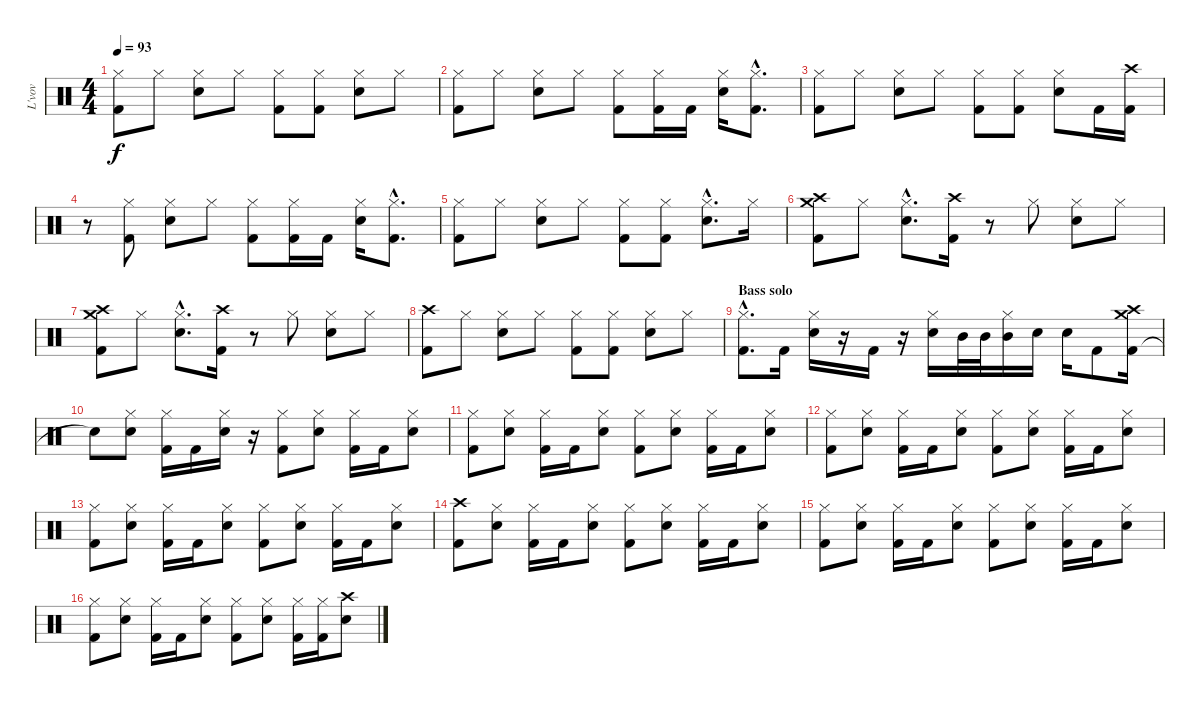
\track ("L'vov" "L'vov") {instrument percussion}
\staff {score}
\articulation defaults
\ts (4 4)
\tempo 93
\clef neutral
\ks c
("Kick (hit) 2" "Hi-Hat (closed)").8{dy f} "Hi-Hat (closed)".8 ("Snare (hit) 2" "Hi-Hat (closed)").8 "Hi-Hat (closed)".8 ("Kick (hit) 2" "Hi-Hat (closed)").8 ("Kick (hit) 2" "Hi-Hat (closed)").8 ("Snare (hit) 2" "Hi-Hat (closed)").8 "Hi-Hat (closed)".8 |
("Kick (hit) 2" "Hi-Hat (closed)").8 "Hi-Hat (closed)".8 ("Snare (hit) 2" "Hi-Hat (closed)").8 "Hi-Hat (closed)".8 ("Kick (hit) 2" "Hi-Hat (closed)").8 ("Kick (hit) 2" "Hi-Hat (closed)").16 "Kick (hit) 2".16 ("Snare (hit) 2" "Hi-Hat (closed)").16 ("Kick (hit) 2"{hac} "Hi-Hat (closed)"{hac}).8{d} |
("Kick (hit) 2" "Hi-Hat (closed)").8 "Hi-Hat (closed)".8 ("Snare (hit) 2" "Hi-Hat (closed)").8 "Hi-Hat (closed)".8 ("Kick (hit) 2" "Hi-Hat (closed)").8 ("Kick (hit) 2" "Hi-Hat (closed)").8 ("Snare (hit) 2" "Hi-Hat (closed)").8 "Kick (hit) 2".16 ("Kick (hit) 2" "Crash high (hit)").16 |
r.8 ("Kick (hit) 2" "Hi-Hat (closed)").8 ("Snare (hit) 2" "Hi-Hat (closed)").8 "Hi-Hat (closed)".8 ("Kick (hit) 2" "Hi-Hat (closed)").8 ("Kick (hit) 2" "Hi-Hat (closed)").16 "Kick (hit) 2".16 ("Snare (hit) 2" "Hi-Hat (closed)").16 ("Kick (hit) 2"{hac} "Hi-Hat (closed)"{hac}).8{d} |
("Kick (hit) 2" "Hi-Hat (closed)").8 "Hi-Hat (closed)".8 ("Snare (hit) 2" "Hi-Hat (closed)").8 "Hi-Hat (closed)".8 ("Kick (hit) 2" "Hi-Hat (closed)").8 ("Kick (hit) 2" "Hi-Hat (closed)").8 ("Snare (hit) 2"{hac} "Hi-Hat (closed)"{hac}).8{d} "Hi-Hat (closed)".16 |
("Kick (hit) 2" "Crash high (hit)" "Crash medium (hit)").8 "Hi-Hat (closed)".8 ("Snare (hit) 2"{hac} "Hi-Hat (closed)"{hac}).8{d} ("Kick (hit) 2" "Crash high (hit)").16 r.8 "Hi-Hat (closed)".8 ("Snare (hit) 2" "Hi-Hat (closed)").8 "Hi-Hat (closed)".8 |
("Kick (hit) 2" "Crash high (hit)" "Crash medium (hit)").8 "Hi-Hat (closed)".8 ("Snare (hit) 2"{hac} "Hi-Hat (closed)"{hac}).8{d} ("Kick (hit) 2" "Crash high (hit)").16 r.8 "Hi-Hat (closed)".8 ("Snare (hit) 2" "Hi-Hat (closed)").8 "Hi-Hat (closed)".8 |
("Kick (hit) 2" "Crash high (hit)").8 "Hi-Hat (closed)".8 ("Snare (hit) 2" "Hi-Hat (closed)").8 "Hi-Hat (closed)".8 ("Kick (hit) 2" "Hi-Hat (closed)").8 ("Kick (hit) 2" "Hi-Hat (closed)").8 ("Snare (hit) 2" "Hi-Hat (closed)").8 "Hi-Hat (closed)".8 |
\section ("" "Bass solo")
("Kick (hit) 2"{hac} "Hi-Hat (closed)"{hac}).8{d} "Kick (hit) 2".16 ("Snare (hit) 2" "Hi-Hat (closed)").16 r.16 "Kick (hit) 2".16 r.16 ("Snare (hit) 2" "Hi-Hat (closed)").16 "Mid Tom (hit)".32 "Mid Tom (hit)".32 ("Mid Tom (hit)" "Hi-Hat (closed)").16 "Snare (hit) 2".16 "Snare (hit) 2".16 "Kick (hit) 2".8 ("Kick (hit) 2" "Crash high (hit)" "Crash medium (hit)").16 |
"Snare (hit)"{t}.8 ("Snare (hit) 2" "Hi-Hat (closed)").8 ("Kick (hit) 2" "Hi-Hat (closed)").16 "Kick (hit) 2".16 ("Snare (hit) 2" "Hi-Hat (closed)").16 r.16 ("Kick (hit) 2" "Hi-Hat (closed)").8 ("Snare (hit) 2" "Hi-Hat (closed)").8 ("Kick (hit) 2" "Hi-Hat (closed)").16 "Kick (hit) 2".16 ("Snare (hit) 2" "Hi-Hat (closed)").8 |
("Kick (hit) 2" "Hi-Hat (closed)").8 ("Snare (hit) 2" "Hi-Hat (closed)").8 ("Kick (hit) 2" "Hi-Hat (closed)").16 "Kick (hit) 2".16 ("Snare (hit) 2" "Hi-Hat (closed)").8 ("Kick (hit) 2" "Hi-Hat (closed)").8 ("Snare (hit) 2" "Hi-Hat (closed)").8 ("Kick (hit) 2" "Hi-Hat (closed)").16 "Kick (hit) 2".16 ("Snare (hit) 2" "Hi-Hat (closed)").8 |
("Kick (hit) 2" "Hi-Hat (closed)").8 ("Snare (hit) 2" "Hi-Hat (closed)").8 ("Kick (hit) 2" "Hi-Hat (closed)").16 "Kick (hit) 2".16 ("Snare (hit) 2" "Hi-Hat (closed)").8 ("Kick (hit) 2" "Hi-Hat (closed)").8 ("Snare (hit) 2" "Hi-Hat (closed)").8 ("Kick (hit) 2" "Hi-Hat (closed)").16 "Kick (hit) 2".16 ("Snare (hit) 2" "Hi-Hat (closed)").8 |
("Kick (hit) 2" "Hi-Hat (closed)").8 ("Snare (hit) 2" "Hi-Hat (closed)").8 ("Kick (hit) 2" "Hi-Hat (closed)").16 "Kick (hit) 2".16 ("Snare (hit) 2" "Hi-Hat (closed)").8 ("Kick (hit) 2" "Hi-Hat (closed)").8 ("Snare (hit) 2" "Hi-Hat (closed)").8 ("Kick (hit) 2" "Hi-Hat (closed)").16 "Kick (hit) 2".16 ("Snare (hit) 2" "Hi-Hat (closed)").8 |
("Kick (hit) 2" "Crash high (hit)").8 ("Snare (hit) 2" "Hi-Hat (closed)").8 ("Kick (hit) 2" "Hi-Hat (closed)").16 "Kick (hit) 2".16 ("Snare (hit) 2" "Hi-Hat (closed)").8 ("Kick (hit) 2" "Hi-Hat (closed)").8 ("Snare (hit) 2" "Hi-Hat (closed)").8 ("Kick (hit) 2" "Hi-Hat (closed)").16 "Kick (hit) 2".16 ("Snare (hit) 2" "Hi-Hat (closed)").8 |
("Kick (hit) 2" "Hi-Hat (closed)").8 ("Snare (hit) 2" "Hi-Hat (closed)").8 ("Kick (hit) 2" "Hi-Hat (closed)").16 "Kick (hit) 2".16 ("Snare (hit) 2" "Hi-Hat (closed)").8 ("Kick (hit) 2" "Hi-Hat (closed)").8 ("Snare (hit) 2" "Hi-Hat (closed)").8 ("Kick (hit) 2" "Hi-Hat (closed)").16 "Kick (hit) 2".16 ("Snare (hit) 2" "Hi-Hat (closed)").8 |
("Kick (hit) 2" "Hi-Hat (closed)").8 ("Snare (hit) 2" "Hi-Hat (closed)").8 ("Kick (hit) 2" "Hi-Hat (closed)").16 "Kick (hit) 2".16 ("Snare (hit) 2" "Hi-Hat (closed)").8 ("Kick (hit) 2" "Hi-Hat (closed)").8 ("Snare (hit) 2" "Hi-Hat (closed)").8 ("Kick (hit) 2" "Hi-Hat (closed)").16 ("Kick (hit) 2" "Hi-Hat (closed)").16 ("Snare (hit) 2" "Crash high (hit)").8
